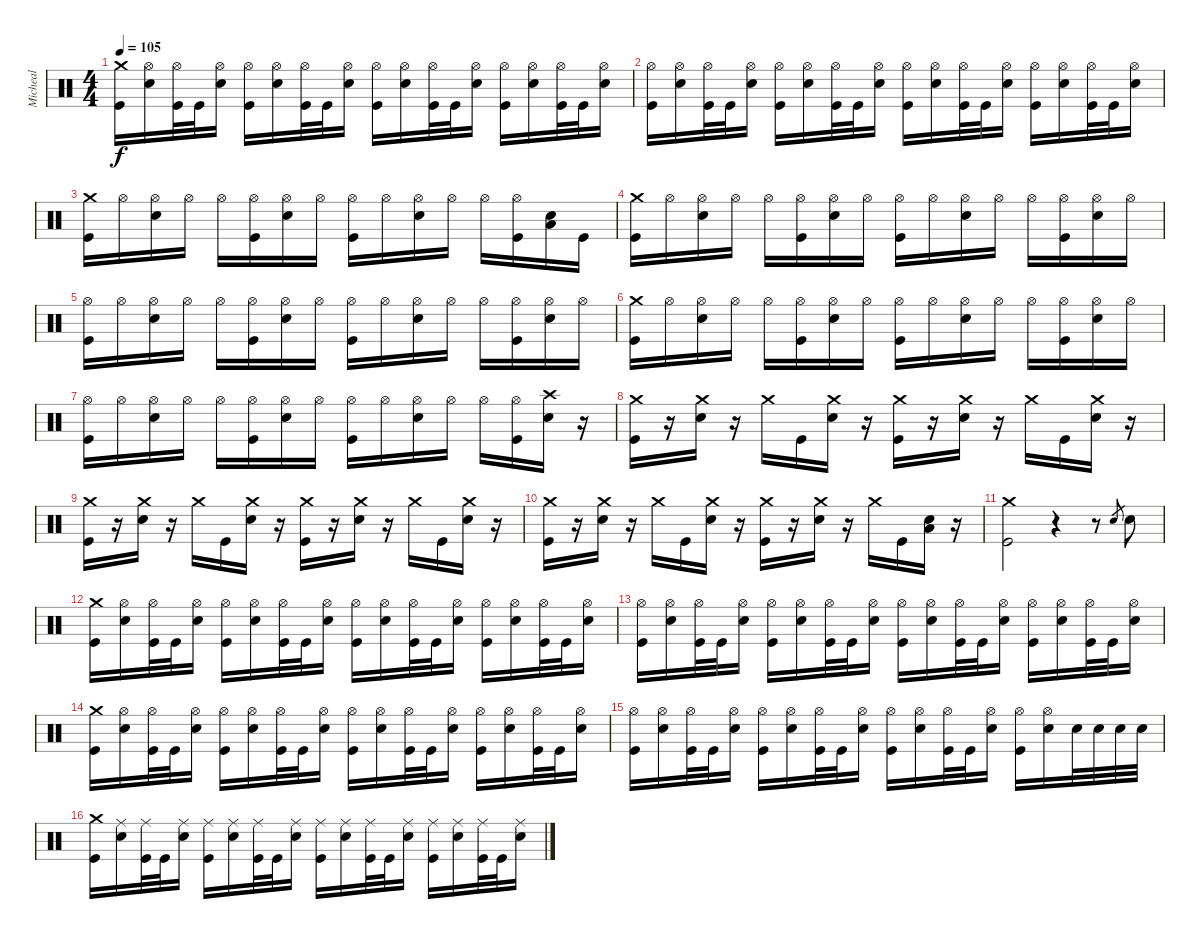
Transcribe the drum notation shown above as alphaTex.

\track ("Micheal" "Micheal") {instrument percussion}
\staff {score}
\articulation defaults
\ts (4 4)
\tempo 105
\clef neutral
\ks c
("Crash medium (hit)" "Kick (hit)").16{dy f} ("Hi-Hat (open)" "Electric Snare (hit)").16 ("Hi-Hat (open)" "Kick (hit)").32 "Kick (hit)".32 ("Hi-Hat (open)" "Electric Snare (hit)").16 ("Hi-Hat (open)" "Kick (hit)").16 ("Hi-Hat (open)" "Electric Snare (hit)").16 ("Hi-Hat (open)" "Kick (hit)").32 "Kick (hit)".32 ("Hi-Hat (open)" "Electric Snare (hit)").16 ("Hi-Hat (open)" "Kick (hit)").16 ("Hi-Hat (open)" "Electric Snare (hit)").16 ("Hi-Hat (open)" "Kick (hit)").32 "Kick (hit)".32 ("Hi-Hat (open)" "Electric Snare (hit)").16 ("Hi-Hat (open)" "Kick (hit)").16 ("Hi-Hat (open)" "Electric Snare (hit)").16 ("Hi-Hat (open)" "Kick (hit)").32 "Kick (hit)".32 ("Hi-Hat (open)" "Electric Snare (hit)").16 |
("Hi-Hat (open)" "Kick (hit)").16 ("Hi-Hat (open)" "Electric Snare (hit)").16 ("Hi-Hat (open)" "Kick (hit)").32 "Kick (hit)".32 ("Hi-Hat (open)" "Electric Snare (hit)").16 ("Hi-Hat (open)" "Kick (hit)").16 ("Hi-Hat (open)" "Electric Snare (hit)").16 ("Hi-Hat (open)" "Kick (hit)").32 "Kick (hit)".32 ("Hi-Hat (open)" "Electric Snare (hit)").16 ("Hi-Hat (open)" "Kick (hit)").16 ("Hi-Hat (open)" "Electric Snare (hit)").16 ("Hi-Hat (open)" "Kick (hit)").32 "Kick (hit)".32 ("Hi-Hat (open)" "Electric Snare (hit)").16 ("Hi-Hat (open)" "Kick (hit)").16 ("Hi-Hat (open)" "Electric Snare (hit)").16 ("Hi-Hat (open)" "Kick (hit)").32 "Kick (hit)".32 ("Hi-Hat (open)" "Electric Snare (hit)").16 |
("Crash medium (hit)" "Kick (hit)").16 "Hi-Hat (open)".16 ("Hi-Hat (open)" "Electric Snare (hit)").16 "Hi-Hat (open)".16 "Hi-Hat (open)".16 ("Hi-Hat (open)" "Kick (hit)").16 ("Hi-Hat (open)" "Electric Snare (hit)").16 "Hi-Hat (open)".16 ("Hi-Hat (open)" "Kick (hit)").16 "Hi-Hat (open)".16 ("Hi-Hat (open)" "Electric Snare (hit)").16 "Hi-Hat (open)".16 "Hi-Hat (open)".16 ("Hi-Hat (open)" "Kick (hit)").16 ("Low Tom (hit)" "Electric Snare (hit)").16 "Kick (hit)".16 |
("Crash medium (hit)" "Kick (hit)").16 "Hi-Hat (open)".16 ("Hi-Hat (open)" "Electric Snare (hit)").16 "Hi-Hat (open)".16 "Hi-Hat (open)".16 ("Hi-Hat (open)" "Kick (hit)").16 ("Hi-Hat (open)" "Electric Snare (hit)").16 "Hi-Hat (open)".16 ("Hi-Hat (open)" "Kick (hit)").16 "Hi-Hat (open)".16 ("Hi-Hat (open)" "Electric Snare (hit)").16 "Hi-Hat (open)".16 "Hi-Hat (open)".16 ("Hi-Hat (open)" "Kick (hit)").16 ("Hi-Hat (open)" "Electric Snare (hit)").16 "Hi-Hat (open)".16 |
("Hi-Hat (open)" "Kick (hit)").16 "Hi-Hat (open)".16 ("Hi-Hat (open)" "Electric Snare (hit)").16 "Hi-Hat (open)".16 "Hi-Hat (open)".16 ("Hi-Hat (open)" "Kick (hit)").16 ("Hi-Hat (open)" "Electric Snare (hit)").16 "Hi-Hat (open)".16 ("Hi-Hat (open)" "Kick (hit)").16 "Hi-Hat (open)".16 ("Hi-Hat (open)" "Electric Snare (hit)").16 "Hi-Hat (open)".16 "Hi-Hat (open)".16 ("Hi-Hat (open)" "Kick (hit)").16 ("Hi-Hat (open)" "Electric Snare (hit)").16 "Hi-Hat (open)".16 |
("Crash medium (hit)" "Kick (hit)").16 "Hi-Hat (open)".16 ("Hi-Hat (open)" "Electric Snare (hit)").16 "Hi-Hat (open)".16 "Hi-Hat (open)".16 ("Hi-Hat (open)" "Kick (hit)").16 ("Hi-Hat (open)" "Electric Snare (hit)").16 "Hi-Hat (open)".16 ("Hi-Hat (open)" "Kick (hit)").16 "Hi-Hat (open)".16 ("Hi-Hat (open)" "Electric Snare (hit)").16 "Hi-Hat (open)".16 "Hi-Hat (open)".16 ("Hi-Hat (open)" "Kick (hit)").16 ("Hi-Hat (open)" "Electric Snare (hit)").16 "Hi-Hat (open)".16 |
("Hi-Hat (open)" "Kick (hit)").16 "Hi-Hat (open)".16 ("Hi-Hat (open)" "Electric Snare (hit)").16 "Hi-Hat (open)".16 "Hi-Hat (open)".16 ("Hi-Hat (open)" "Kick (hit)").16 ("Hi-Hat (open)" "Electric Snare (hit)").16 "Hi-Hat (open)".16 ("Hi-Hat (open)" "Kick (hit)").16 "Hi-Hat (open)".16 ("Hi-Hat (open)" "Electric Snare (hit)").16 "Hi-Hat (open)".16 "Hi-Hat (open)".16 ("Hi-Hat (open)" "Kick (hit)").16 ("Crash high (hit)" "Electric Snare (hit)").16 r.16 |
("Crash medium (hit)" "Kick (hit)").16 r.16 ("Crash medium (hit)" "Electric Snare (hit)").16 r.16 "Crash medium (hit)".16 "Kick (hit)".16 ("Crash medium (hit)" "Electric Snare (hit)").16 r.16 ("Crash medium (hit)" "Kick (hit)").16 r.16 ("Crash medium (hit)" "Electric Snare (hit)").16 r.16 "Crash medium (hit)".16 "Kick (hit)".16 ("Crash medium (hit)" "Electric Snare (hit)").16 r.16 |
("Crash medium (hit)" "Kick (hit)").16 r.16 ("Crash medium (hit)" "Electric Snare (hit)").16 r.16 "Crash medium (hit)".16 "Kick (hit)".16 ("Crash medium (hit)" "Electric Snare (hit)").16 r.16 ("Crash medium (hit)" "Kick (hit)").16 r.16 ("Crash medium (hit)" "Electric Snare (hit)").16 r.16 "Crash medium (hit)".16 "Kick (hit)".16 ("Crash medium (hit)" "Electric Snare (hit)").16 r.16 |
("Crash medium (hit)" "Kick (hit)").16 r.16 ("Crash medium (hit)" "Electric Snare (hit)").16 r.16 "Crash medium (hit)".16 "Kick (hit)".16 ("Crash medium (hit)" "Electric Snare (hit)").16 r.16 ("Crash medium (hit)" "Kick (hit)").16 r.16 ("Crash medium (hit)" "Electric Snare (hit)").16 r.16 "Crash medium (hit)".16 "Kick (hit)".16 ("Low Tom (hit)" "Electric Snare (hit)").16 r.16 |
("Crash medium (hit)" "Kick (hit)").2 r.4 r.8 "Electric Snare (hit)".8{gr} "Electric Snare (hit)".8 |
("Crash medium (hit)" "Kick (hit)").16 ("Hi-Hat (open)" "Electric Snare (hit)").16 ("Hi-Hat (open)" "Kick (hit)").32 "Kick (hit)".32 ("Hi-Hat (open)" "Electric Snare (hit)").16 ("Hi-Hat (open)" "Kick (hit)").16 ("Hi-Hat (open)" "Electric Snare (hit)").16 ("Hi-Hat (open)" "Kick (hit)").32 "Kick (hit)".32 ("Hi-Hat (open)" "Electric Snare (hit)").16 ("Hi-Hat (open)" "Kick (hit)").16 ("Hi-Hat (open)" "Electric Snare (hit)").16 ("Hi-Hat (open)" "Kick (hit)").32 "Kick (hit)".32 ("Hi-Hat (open)" "Electric Snare (hit)").16 ("Hi-Hat (open)" "Kick (hit)").16 ("Hi-Hat (open)" "Electric Snare (hit)").16 ("Hi-Hat (open)" "Kick (hit)").32 "Kick (hit)".32 ("Hi-Hat (open)" "Electric Snare (hit)").16 |
("Hi-Hat (open)" "Kick (hit)").16 ("Hi-Hat (open)" "Electric Snare (hit)").16 ("Hi-Hat (open)" "Kick (hit)").32 "Kick (hit)".32 ("Hi-Hat (open)" "Electric Snare (hit)").16 ("Hi-Hat (open)" "Kick (hit)").16 ("Hi-Hat (open)" "Electric Snare (hit)").16 ("Hi-Hat (open)" "Kick (hit)").32 "Kick (hit)".32 ("Hi-Hat (open)" "Electric Snare (hit)").16 ("Hi-Hat (open)" "Kick (hit)").16 ("Hi-Hat (open)" "Electric Snare (hit)").16 ("Hi-Hat (open)" "Kick (hit)").32 "Kick (hit)".32 ("Hi-Hat (open)" "Electric Snare (hit)").16 ("Hi-Hat (open)" "Kick (hit)").16 ("Hi-Hat (open)" "Electric Snare (hit)").16 ("Hi-Hat (open)" "Kick (hit)").32 "Kick (hit)".32 ("Hi-Hat (open)" "Electric Snare (hit)").16 |
("Crash medium (hit)" "Kick (hit)").16 ("Hi-Hat (open)" "Electric Snare (hit)").16 ("Hi-Hat (open)" "Kick (hit)").32 "Kick (hit)".32 ("Hi-Hat (open)" "Electric Snare (hit)").16 ("Hi-Hat (open)" "Kick (hit)").16 ("Hi-Hat (open)" "Electric Snare (hit)").16 ("Hi-Hat (open)" "Kick (hit)").32 "Kick (hit)".32 ("Hi-Hat (open)" "Electric Snare (hit)").16 ("Hi-Hat (open)" "Kick (hit)").16 ("Hi-Hat (open)" "Electric Snare (hit)").16 ("Hi-Hat (open)" "Kick (hit)").32 "Kick (hit)".32 ("Hi-Hat (open)" "Electric Snare (hit)").16 ("Hi-Hat (open)" "Kick (hit)").16 ("Hi-Hat (open)" "Electric Snare (hit)").16 ("Hi-Hat (open)" "Kick (hit)").32 "Kick (hit)".32 ("Hi-Hat (open)" "Electric Snare (hit)").16 |
("Hi-Hat (open)" "Kick (hit)").16 ("Hi-Hat (open)" "Electric Snare (hit)").16 ("Hi-Hat (open)" "Kick (hit)").32 "Kick (hit)".32 ("Hi-Hat (open)" "Electric Snare (hit)").16 ("Hi-Hat (open)" "Kick (hit)").16 ("Hi-Hat (open)" "Electric Snare (hit)").16 ("Hi-Hat (open)" "Kick (hit)").32 "Kick (hit)".32 ("Hi-Hat (open)" "Electric Snare (hit)").16 ("Hi-Hat (open)" "Kick (hit)").16 ("Hi-Hat (open)" "Electric Snare (hit)").16 ("Hi-Hat (open)" "Kick (hit)").32 "Kick (hit)".32 ("Hi-Hat (open)" "Electric Snare (hit)").16 ("Hi-Hat (open)" "Kick (hit)").16 ("Hi-Hat (open)" "Electric Snare (hit)").16 "Electric Snare (hit)".32 "Electric Snare (hit)".32 "Electric Snare (hit)".32 "Electric Snare (hit)".32 |
("Crash medium (hit)" "Kick (hit)").16 ("Ride (middle)" "Electric Snare (hit)").16 ("Ride (middle)" "Kick (hit)").32 "Kick (hit)".32 ("Ride (middle)" "Electric Snare (hit)").16 ("Ride (middle)" "Kick (hit)").16 ("Ride (middle)" "Electric Snare (hit)").16 ("Ride (middle)" "Kick (hit)").32 "Kick (hit)".32 ("Ride (middle)" "Electric Snare (hit)").16 ("Ride (middle)" "Kick (hit)").16 ("Ride (middle)" "Electric Snare (hit)").16 ("Ride (middle)" "Kick (hit)").32 "Kick (hit)".32 ("Ride (middle)" "Electric Snare (hit)").16 ("Ride (middle)" "Kick (hit)").16 ("Ride (middle)" "Electric Snare (hit)").16 ("Ride (middle)" "Kick (hit)").32 "Kick (hit)".32 ("Ride (middle)" "Electric Snare (hit)").16
